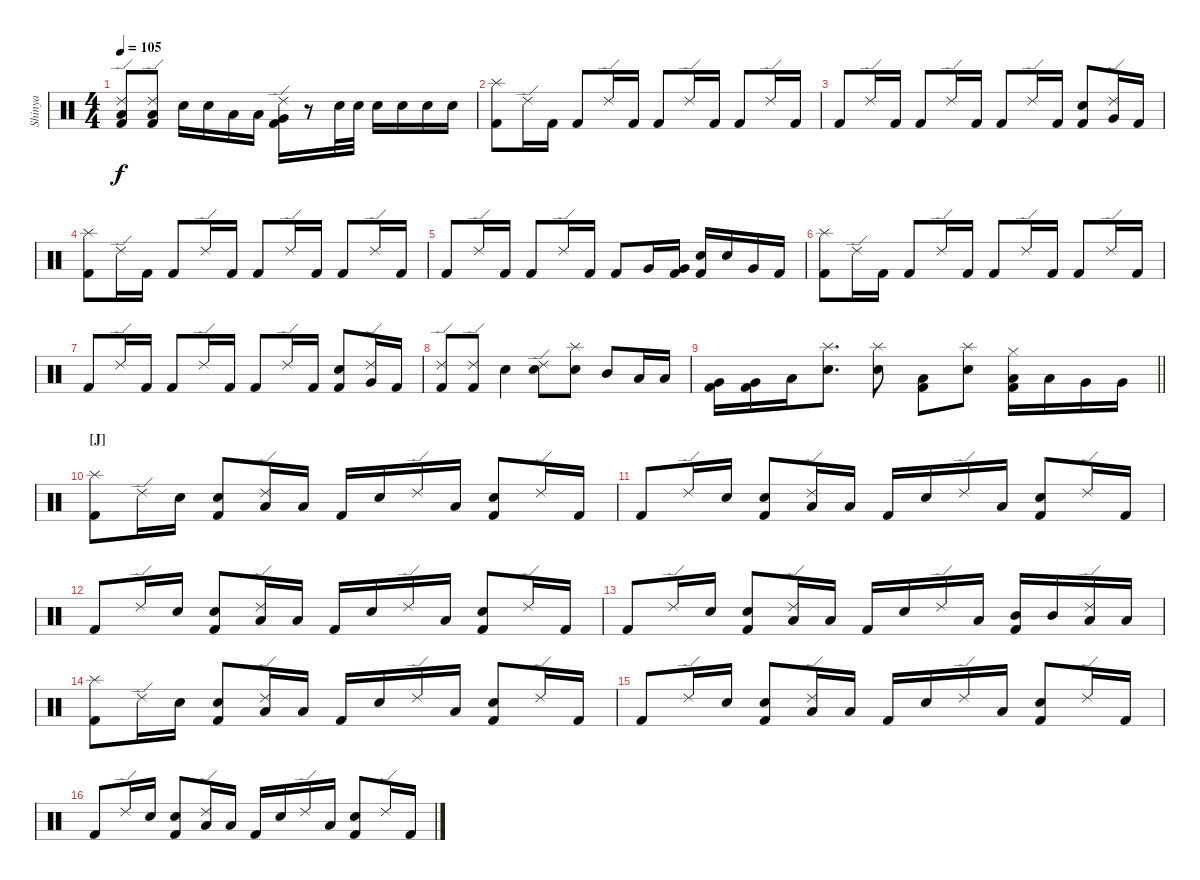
\track ("Shinya" "Shinya") {instrument percussion}
\staff {score}
\articulation defaults
\ts (4 4)
\tempo 105
\clef neutral
\ks c
("Ride (edge) 2" "Low Floor Tom (hit)" "Kick (hit) 2").8{dy f} ("Ride (edge) 2" "Low Floor Tom (hit)" "Kick (hit) 2").8 "Snare (hit) 2".16 "Snare (hit) 2".16 "Low Tom (hit)".16 "Low Tom (hit)".16 ("Ride (edge) 2" "Very Low Tom (hit)" "Kick (hit) 2").16 r.8 "Snare (hit) 2".32 "Snare (hit) 2".32 "Snare (hit) 2".16 "Snare (hit) 2".16 "Snare (hit) 2".16 "Snare (hit) 2".16 |
("Splash (hit)" "Kick (hit) 2").8 "Ride (edge) 2".16 "Kick (hit) 2".16 "Kick (hit) 2".8 "Ride (edge) 2".16 "Kick (hit) 2".16 "Kick (hit) 2".8 "Ride (edge) 2".16 "Kick (hit) 2".16 "Kick (hit) 2".8 "Ride (edge) 2".16 "Kick (hit) 2".16 |
"Kick (hit) 2".8 "Ride (edge) 2".16 "Kick (hit) 2".16 "Kick (hit) 2".8 "Ride (edge) 2".16 "Kick (hit) 2".16 "Kick (hit) 2".8 "Ride (edge) 2".16 "Kick (hit) 2".16 ("Snare (hit) 2" "Kick (hit) 2").8 ("Ride (edge) 2" "Very Low Tom (hit)").16 "Kick (hit) 2".16 |
("Splash (hit)" "Kick (hit) 2").8 "Ride (edge) 2".16 "Kick (hit) 2".16 "Kick (hit) 2".8 "Ride (edge) 2".16 "Kick (hit) 2".16 "Kick (hit) 2".8 "Ride (edge) 2".16 "Kick (hit) 2".16 "Kick (hit) 2".8 "Ride (edge) 2".16 "Kick (hit) 2".16 |
"Kick (hit) 2".8 "Ride (edge) 2".16 "Kick (hit) 2".16 "Kick (hit) 2".8 "Ride (edge) 2".16 "Kick (hit) 2".16 "Kick (hit) 2".8 "Very Low Tom (hit)".16 ("Very Low Tom (hit)" "Kick (hit) 2").16 ("Snare (hit) 2" "Kick (hit) 2").16 "Snare (hit) 2".16 "Very Low Tom (hit)".16 "Kick (hit) 2".16 |
("Splash (hit)" "Kick (hit) 2").8 "Ride (edge) 2".16 "Kick (hit) 2".16 "Kick (hit) 2".8 "Ride (edge) 2".16 "Kick (hit) 2".16 "Kick (hit) 2".8 "Ride (edge) 2".16 "Kick (hit) 2".16 "Kick (hit) 2".8 "Ride (edge) 2".16 "Kick (hit) 2".16 |
"Kick (hit) 2".8 "Ride (edge) 2".16 "Kick (hit) 2".16 "Kick (hit) 2".8 "Ride (edge) 2".16 "Kick (hit) 2".16 "Kick (hit) 2".8 "Ride (edge) 2".16 "Kick (hit) 2".16 ("Snare (hit) 2" "Kick (hit) 2").8 ("Ride (edge) 2" "Very Low Tom (hit)").16 "Kick (hit) 2".16 |
("Ride (edge) 2" "Kick (hit) 2").8 ("Ride (edge) 2" "Kick (hit) 2").8 "Snare (hit) 2".4 ("Ride (edge) 2" "Snare (hit) 2").8 ("Splash (hit)" "Snare (hit) 2").8 "Mid Tom (hit)".8 "Low Tom (hit)".16 "Low Tom (hit)".16 |
\barLineRight lightlight
("Very Low Tom (hit)" "Kick (hit) 2").16 ("Very Low Tom (hit)" "Kick (hit) 2").16 "Low Floor Tom (hit)".16 ("Splash (hit)" "Snare (hit) 2").8{d} ("Splash (hit)" "Snare (hit) 2").8 ("Low Floor Tom (hit)" "Kick (hit) 2").8 ("Splash (hit)" "Snare (hit) 2").8 ("Hi-Hat (closed)" "Low Tom (hit)" "Kick (hit) 2").16 "Low Tom (hit)".16 "Very Low Tom (hit)".16 "Very Low Tom (hit)".16 |
\section ("" "[J]")
("Splash (hit)" "Kick (hit) 2").8 "Ride (edge) 2".16 "Snare (hit) 2".16 ("Snare (hit) 2" "Kick (hit) 2").8 ("Ride (edge) 2" "Low Tom (hit)").16 "Low Tom (hit)".16 "Kick (hit) 2".16 "Snare (hit) 2".16 "Ride (edge) 2".16 "Low Tom (hit)".16 ("Snare (hit) 2" "Kick (hit) 2").8 "Ride (edge) 2".16 "Kick (hit) 2".16 |
"Kick (hit) 2".8 "Ride (edge) 2".16 "Snare (hit) 2".16 ("Snare (hit) 2" "Kick (hit) 2").8 ("Ride (edge) 2" "Low Tom (hit)").16 "Low Tom (hit)".16 "Kick (hit) 2".16 "Snare (hit) 2".16 "Ride (edge) 2".16 "Low Tom (hit)".16 ("Snare (hit) 2" "Kick (hit) 2").8 "Ride (edge) 2".16 "Kick (hit) 2".16 |
"Kick (hit) 2".8 "Ride (edge) 2".16 "Snare (hit) 2".16 ("Snare (hit) 2" "Kick (hit) 2").8 ("Ride (edge) 2" "Low Tom (hit)").16 "Low Tom (hit)".16 "Kick (hit) 2".16 "Snare (hit) 2".16 "Ride (edge) 2".16 "Low Tom (hit)".16 ("Snare (hit) 2" "Kick (hit) 2").8 "Ride (edge) 2".16 "Kick (hit) 2".16 |
"Kick (hit) 2".8 "Ride (edge) 2".16 "Snare (hit) 2".16 ("Snare (hit) 2" "Kick (hit) 2").8 ("Ride (edge) 2" "Low Tom (hit)").16 "Low Tom (hit)".16 "Kick (hit) 2".16 "Snare (hit) 2".16 "Ride (edge) 2".16 "Low Floor Tom (hit)".16 ("Mid Tom (hit)" "Kick (hit) 2").16 "Mid Tom (hit)".16 ("Ride (edge) 2" "Low Tom (hit)").16 "Low Tom (hit)".16 |
("Splash (hit)" "Kick (hit) 2").8 "Ride (edge) 2".16 "Snare (hit) 2".16 ("Snare (hit) 2" "Kick (hit) 2").8 ("Ride (edge) 2" "Low Tom (hit)").16 "Low Tom (hit)".16 "Kick (hit) 2".16 "Snare (hit) 2".16 "Ride (edge) 2".16 "Low Tom (hit)".16 ("Snare (hit) 2" "Kick (hit) 2").8 "Ride (edge) 2".16 "Kick (hit) 2".16 |
"Kick (hit) 2".8 "Ride (edge) 2".16 "Snare (hit) 2".16 ("Snare (hit) 2" "Kick (hit) 2").8 ("Ride (edge) 2" "Low Tom (hit)").16 "Low Tom (hit)".16 "Kick (hit) 2".16 "Snare (hit) 2".16 "Ride (edge) 2".16 "Low Tom (hit)".16 ("Snare (hit) 2" "Kick (hit) 2").8 "Ride (edge) 2".16 "Kick (hit) 2".16 |
"Kick (hit) 2".8 "Ride (edge) 2".16 "Snare (hit) 2".16 ("Snare (hit) 2" "Kick (hit) 2").8 ("Ride (edge) 2" "Low Tom (hit)").16 "Low Tom (hit)".16 "Kick (hit) 2".16 "Snare (hit) 2".16 "Ride (edge) 2".16 "Low Tom (hit)".16 ("Snare (hit) 2" "Kick (hit) 2").8 "Ride (edge) 2".16 "Kick (hit) 2".16
